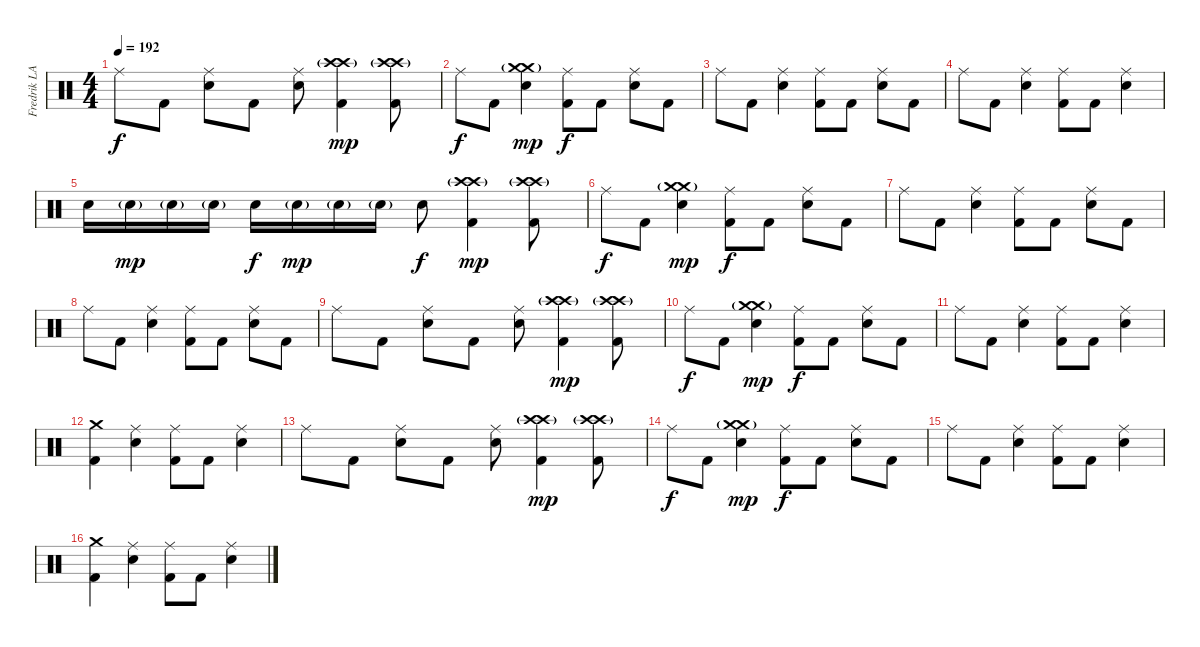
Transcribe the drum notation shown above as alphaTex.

\track ("Fredrik LARZON" "Fredrik LA") {instrument percussion}
\staff {score}
\articulation defaults
\ts (4 4)
\tempo 192
\clef neutral
\ks c "Ride (middle)".8{dy f} "Kick (hit) 2".8
("Ride (middle)" "Electric Snare (hit)").8 "Kick (hit) 2".8 ("Ride (middle)" "Electric Snare (hit)").8 ("Crash high (hit)" "Crash high (hit)"{g} "Kick (hit) 2").4{dy mp} ("Crash high (hit)" "Crash high (hit)"{g} "Kick (hit) 2").8 |
"Ride (middle)".8{dy f} "Kick (hit) 2".8 ("Crash medium (hit)" "Electric Snare (hit)" "Crash medium (hit)"{g}).4{dy mp} ("Ride (middle)" "Kick (hit) 2").8{dy f} "Kick (hit) 2".8 ("Ride (middle)" "Electric Snare (hit)").8 "Kick (hit) 2".8 |
"Ride (middle)".8 "Kick (hit) 2".8 ("Ride (middle)" "Electric Snare (hit)").4 ("Ride (middle)" "Kick (hit) 2").8 "Kick (hit) 2".8 ("Ride (middle)" "Electric Snare (hit)").8 "Kick (hit) 2".8 |
"Ride (middle)".8 "Kick (hit) 2".8 ("Ride (middle)" "Electric Snare (hit)").4 ("Ride (middle)" "Kick (hit) 2").8 "Kick (hit) 2".8 ("Ride (middle)" "Electric Snare (hit)").4 |
"Electric Snare (hit)".16 "Electric Snare (hit)"{g}.16{dy mp} "Electric Snare (hit)"{g}.16 "Electric Snare (hit)"{g}.16 "Electric Snare (hit)".16{dy f} "Electric Snare (hit)"{g}.16{dy mp} "Electric Snare (hit)"{g}.16 "Electric Snare (hit)"{g}.16 "Electric Snare (hit)".8{dy f} ("Crash high (hit)" "Crash high (hit)"{g} "Kick (hit) 2").4{dy mp} ("Crash high (hit)" "Crash high (hit)"{g} "Kick (hit) 2").8 |
"Ride (middle)".8{dy f} "Kick (hit) 2".8 ("Crash medium (hit)" "Electric Snare (hit)" "Crash medium (hit)"{g}).4{dy mp} ("Ride (middle)" "Kick (hit) 2").8{dy f} "Kick (hit) 2".8 ("Ride (middle)" "Electric Snare (hit)").8 "Kick (hit) 2".8 |
"Ride (middle)".8 "Kick (hit) 2".8 ("Ride (middle)" "Electric Snare (hit)").4 ("Ride (middle)" "Kick (hit) 2").8 "Kick (hit) 2".8 ("Ride (middle)" "Electric Snare (hit)").8 "Kick (hit) 2".8 |
"Ride (middle)".8 "Kick (hit) 2".8 ("Ride (middle)" "Electric Snare (hit)").4 ("Ride (middle)" "Kick (hit) 2").8 "Kick (hit) 2".8 ("Ride (middle)" "Electric Snare (hit)").8 "Kick (hit) 2".8 |
"Ride (middle)".8 "Kick (hit) 2".8 ("Ride (middle)" "Electric Snare (hit)").8 "Kick (hit) 2".8 ("Ride (middle)" "Electric Snare (hit)").8 ("Crash high (hit)" "Crash high (hit)"{g} "Kick (hit) 2").4{dy mp} ("Crash high (hit)" "Crash high (hit)"{g} "Kick (hit) 2").8 |
"Ride (middle)".8{dy f} "Kick (hit) 2".8 ("Crash medium (hit)" "Electric Snare (hit)" "Crash medium (hit)"{g}).4{dy mp} ("Ride (middle)" "Kick (hit) 2").8{dy f} "Kick (hit) 2".8 ("Ride (middle)" "Electric Snare (hit)").8 "Kick (hit) 2".8 |
"Ride (middle)".8 "Kick (hit) 2".8 ("Ride (middle)" "Electric Snare (hit)").4 ("Ride (middle)" "Kick (hit) 2").8 "Kick (hit) 2".8 ("Ride (middle)" "Electric Snare (hit)").4 |
("Crash medium (hit)" "Kick (hit) 2").4 ("Ride (middle)" "Electric Snare (hit)").4 ("Ride (middle)" "Kick (hit) 2").8 "Kick (hit) 2".8 ("Ride (middle)" "Electric Snare (hit)").4 |
"Ride (middle)".8 "Kick (hit) 2".8 ("Ride (middle)" "Electric Snare (hit)").8 "Kick (hit) 2".8 ("Ride (middle)" "Electric Snare (hit)").8 ("Crash high (hit)" "Crash high (hit)"{g} "Kick (hit) 2").4{dy mp} ("Crash high (hit)" "Crash high (hit)"{g} "Kick (hit) 2").8 |
"Ride (middle)".8{dy f} "Kick (hit) 2".8 ("Crash medium (hit)" "Electric Snare (hit)" "Crash medium (hit)"{g}).4{dy mp} ("Ride (middle)" "Kick (hit) 2").8{dy f} "Kick (hit) 2".8 ("Ride (middle)" "Electric Snare (hit)").8 "Kick (hit) 2".8 |
"Ride (middle)".8 "Kick (hit) 2".8 ("Ride (middle)" "Electric Snare (hit)").4 ("Ride (middle)" "Kick (hit) 2").8 "Kick (hit) 2".8 ("Ride (middle)" "Electric Snare (hit)").4 |
("Crash medium (hit)" "Kick (hit) 2").4 ("Ride (middle)" "Electric Snare (hit)").4 ("Ride (middle)" "Kick (hit) 2").8 "Kick (hit) 2".8 ("Ride (middle)" "Electric Snare (hit)").4
